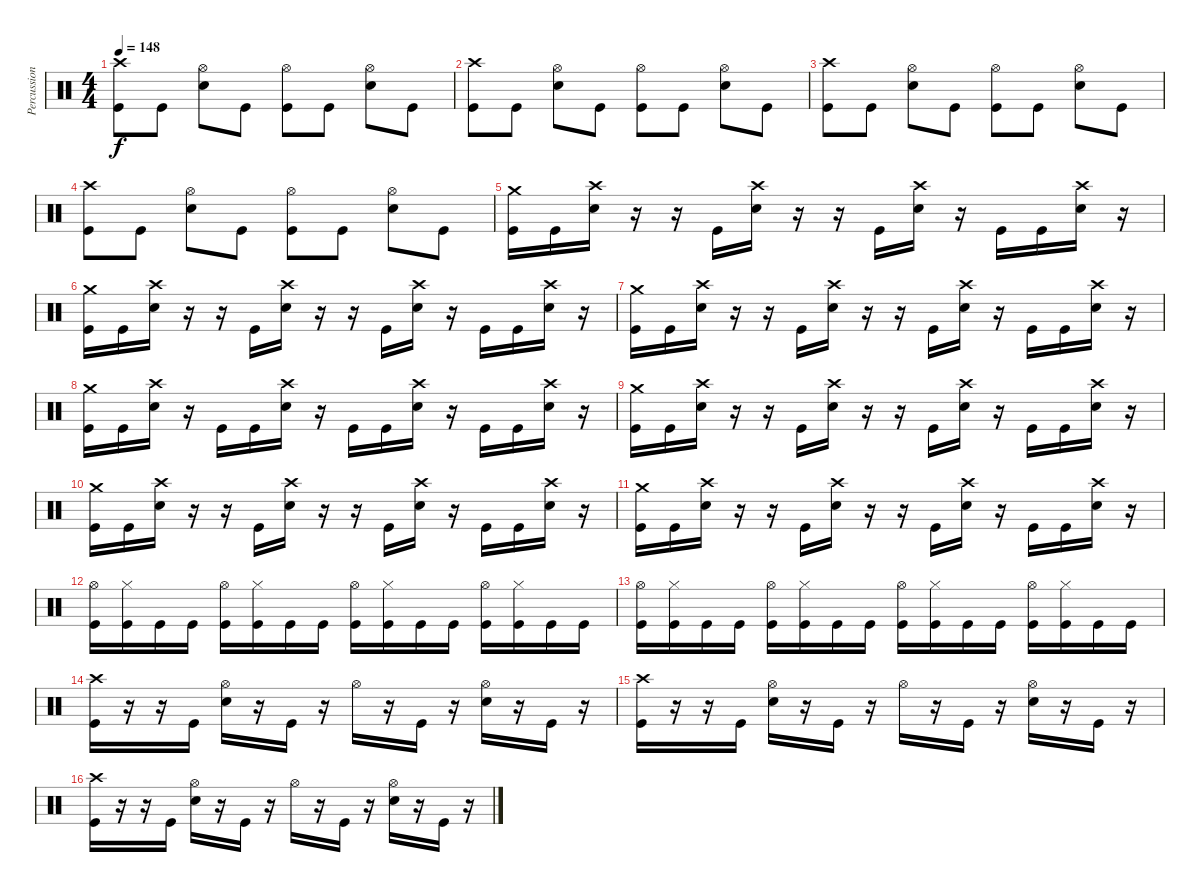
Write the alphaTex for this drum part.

\track ("Percussion" "Percussion") {instrument percussion}
\staff {score}
\articulation defaults
\ts (4 4)
\tempo 148
\clef neutral
\ks c
("Crash high (hit)" "Kick (hit)").8{dy f} "Kick (hit)".8 ("Hi-Hat (open)" "Snare (hit) 2").8 "Kick (hit)".8 ("Hi-Hat (open)" "Kick (hit)").8 "Kick (hit)".8 ("Hi-Hat (open)" "Snare (hit) 2").8 "Kick (hit)".8 |
("Crash high (hit)" "Kick (hit)").8 "Kick (hit)".8 ("Hi-Hat (open)" "Snare (hit) 2").8 "Kick (hit)".8 ("Hi-Hat (open)" "Kick (hit)").8 "Kick (hit)".8 ("Hi-Hat (open)" "Snare (hit) 2").8 "Kick (hit)".8 |
("Crash high (hit)" "Kick (hit)").8 "Kick (hit)".8 ("Hi-Hat (open)" "Snare (hit) 2").8 "Kick (hit)".8 ("Hi-Hat (open)" "Kick (hit)").8 "Kick (hit)".8 ("Hi-Hat (open)" "Snare (hit) 2").8 "Kick (hit)".8 |
("Crash high (hit)" "Kick (hit)").8 "Kick (hit)".8 ("Hi-Hat (open)" "Snare (hit) 2").8 "Kick (hit)".8 ("Hi-Hat (open)" "Kick (hit)").8 "Kick (hit)".8 ("Hi-Hat (open)" "Snare (hit) 2").8 "Kick (hit)".8 |
("Crash medium (hit)" "Kick (hit)").16 "Kick (hit)".16 ("Crash high (hit)" "Snare (hit) 2").16 r.16 r.16 "Kick (hit)".16 ("Crash high (hit)" "Snare (hit) 2").16 r.16 r.16 "Kick (hit)".16 ("Crash high (hit)" "Snare (hit) 2").16 r.16 "Kick (hit)".16 "Kick (hit)".16 ("Crash high (hit)" "Snare (hit) 2").16 r.16 |
("Crash medium (hit)" "Kick (hit)").16 "Kick (hit)".16 ("Crash high (hit)" "Snare (hit) 2").16 r.16 r.16 "Kick (hit)".16 ("Crash high (hit)" "Snare (hit) 2").16 r.16 r.16 "Kick (hit)".16 ("Crash high (hit)" "Snare (hit) 2").16 r.16 "Kick (hit)".16 "Kick (hit)".16 ("Crash high (hit)" "Snare (hit) 2").16 r.16 |
("Crash medium (hit)" "Kick (hit)").16 "Kick (hit)".16 ("Crash high (hit)" "Snare (hit) 2").16 r.16 r.16 "Kick (hit)".16 ("Crash high (hit)" "Snare (hit) 2").16 r.16 r.16 "Kick (hit)".16 ("Crash high (hit)" "Snare (hit) 2").16 r.16 "Kick (hit)".16 "Kick (hit)".16 ("Crash high (hit)" "Snare (hit) 2").16 r.16 |
("Crash medium (hit)" "Kick (hit)").16 "Kick (hit)".16 ("Crash high (hit)" "Snare (hit) 2").16 r.16 "Kick (hit)".16 "Kick (hit)".16 ("Crash high (hit)" "Snare (hit) 2").16 r.16 "Kick (hit)".16 "Kick (hit)".16 ("Crash high (hit)" "Snare (hit) 2").16 r.16 "Kick (hit)".16 "Kick (hit)".16 ("Crash high (hit)" "Snare (hit) 2").16 r.16 |
("Crash medium (hit)" "Kick (hit)").16 "Kick (hit)".16 ("Crash high (hit)" "Snare (hit) 2").16 r.16 r.16 "Kick (hit)".16 ("Crash high (hit)" "Snare (hit) 2").16 r.16 r.16 "Kick (hit)".16 ("Crash high (hit)" "Snare (hit) 2").16 r.16 "Kick (hit)".16 "Kick (hit)".16 ("Crash high (hit)" "Snare (hit) 2").16 r.16 |
("Crash medium (hit)" "Kick (hit)").16 "Kick (hit)".16 ("Crash high (hit)" "Snare (hit) 2").16 r.16 r.16 "Kick (hit)".16 ("Crash high (hit)" "Snare (hit) 2").16 r.16 r.16 "Kick (hit)".16 ("Crash high (hit)" "Snare (hit) 2").16 r.16 "Kick (hit)".16 "Kick (hit)".16 ("Crash high (hit)" "Snare (hit) 2").16 r.16 |
("Crash medium (hit)" "Kick (hit)").16 "Kick (hit)".16 ("Crash high (hit)" "Snare (hit) 2").16 r.16 r.16 "Kick (hit)".16 ("Crash high (hit)" "Snare (hit) 2").16 r.16 r.16 "Kick (hit)".16 ("Crash high (hit)" "Snare (hit) 2").16 r.16 "Kick (hit)".16 "Kick (hit)".16 ("Crash high (hit)" "Snare (hit) 2").16 r.16 |
("Hi-Hat (open)" "Kick (hit)").16 ("Hi-Hat (closed)" "Kick (hit)").16 "Kick (hit)".16 "Kick (hit)".16 ("Hi-Hat (open)" "Kick (hit)").16 ("Hi-Hat (closed)" "Kick (hit)").16 "Kick (hit)".16 "Kick (hit)".16 ("Hi-Hat (open)" "Kick (hit)").16 ("Hi-Hat (closed)" "Kick (hit)").16 "Kick (hit)".16 "Kick (hit)".16 ("Hi-Hat (open)" "Kick (hit)").16 ("Hi-Hat (closed)" "Kick (hit)").16 "Kick (hit)".16 "Kick (hit)".16 |
("Hi-Hat (open)" "Kick (hit)").16 ("Hi-Hat (closed)" "Kick (hit)").16 "Kick (hit)".16 "Kick (hit)".16 ("Hi-Hat (open)" "Kick (hit)").16 ("Hi-Hat (closed)" "Kick (hit)").16 "Kick (hit)".16 "Kick (hit)".16 ("Hi-Hat (open)" "Kick (hit)").16 ("Hi-Hat (closed)" "Kick (hit)").16 "Kick (hit)".16 "Kick (hit)".16 ("Hi-Hat (open)" "Kick (hit)").16 ("Hi-Hat (closed)" "Kick (hit)").16 "Kick (hit)".16 "Kick (hit)".16 |
("Crash high (hit)" "Kick (hit)").16 r.16 r.16 "Kick (hit)".16 ("Hi-Hat (open)" "Snare (hit) 2").16 r.16 "Kick (hit)".16 r.16 "Hi-Hat (open)".16 r.16 "Kick (hit)".16 r.16 ("Hi-Hat (open)" "Snare (hit) 2").16 r.16 "Kick (hit)".16 r.16 |
("Crash high (hit)" "Kick (hit)").16 r.16 r.16 "Kick (hit)".16 ("Hi-Hat (open)" "Snare (hit) 2").16 r.16 "Kick (hit)".16 r.16 "Hi-Hat (open)".16 r.16 "Kick (hit)".16 r.16 ("Hi-Hat (open)" "Snare (hit) 2").16 r.16 "Kick (hit)".16 r.16 |
("Crash high (hit)" "Kick (hit)").16 r.16 r.16 "Kick (hit)".16 ("Hi-Hat (open)" "Snare (hit) 2").16 r.16 "Kick (hit)".16 r.16 "Hi-Hat (open)".16 r.16 "Kick (hit)".16 r.16 ("Hi-Hat (open)" "Snare (hit) 2").16 r.16 "Kick (hit)".16 r.16
